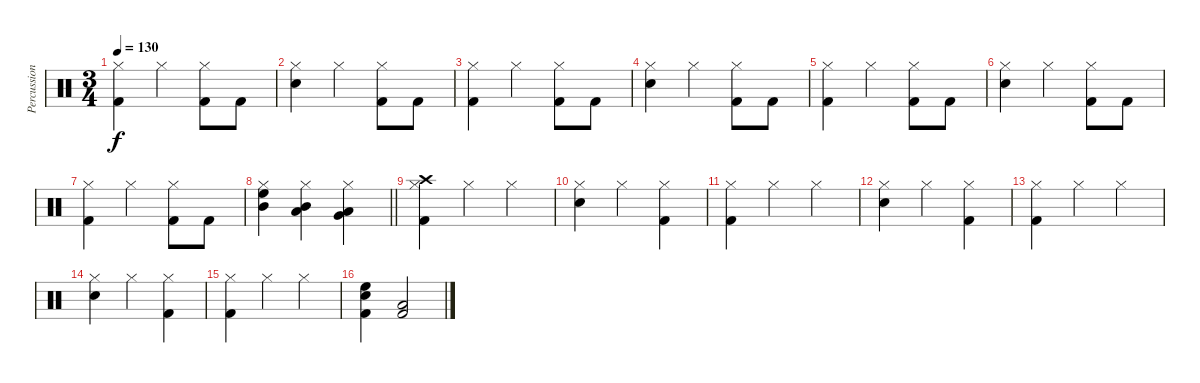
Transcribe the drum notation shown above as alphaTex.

\track ("Percussion" "Percussion") {instrument percussion}
\staff {score}
\articulation defaults
\ts (3 4)
\tempo 130
\clef neutral
\ks c
("Hi-Hat (closed)" "Kick (hit) 2").4{dy f} "Hi-Hat (closed)".4 ("Hi-Hat (closed)" "Kick (hit) 2").8 "Kick (hit) 2".8 |
("Hi-Hat (closed)" "Electric Snare (hit)").4 "Hi-Hat (closed)".4 ("Hi-Hat (closed)" "Kick (hit) 2").8 "Kick (hit) 2".8 |
("Hi-Hat (closed)" "Kick (hit) 2").4 "Hi-Hat (closed)".4 ("Hi-Hat (closed)" "Kick (hit) 2").8 "Kick (hit) 2".8 |
("Hi-Hat (closed)" "Electric Snare (hit)").4 "Hi-Hat (closed)".4 ("Hi-Hat (closed)" "Kick (hit) 2").8 "Kick (hit) 2".8 |
("Hi-Hat (closed)" "Kick (hit) 2").4 "Hi-Hat (closed)".4 ("Hi-Hat (closed)" "Kick (hit) 2").8 "Kick (hit) 2".8 |
("Hi-Hat (closed)" "Electric Snare (hit)").4 "Hi-Hat (closed)".4 ("Hi-Hat (closed)" "Kick (hit) 2").8 "Kick (hit) 2".8 |
("Hi-Hat (closed)" "Kick (hit) 2").4 "Hi-Hat (closed)".4 ("Hi-Hat (closed)" "Kick (hit) 2").8 "Kick (hit) 2".8 |
\barLineRight lightlight
("Hi-Hat (closed)" "High Floor Tom (hit)" "Mid Tom (hit)").4 ("Hi-Hat (closed)" "Mid Tom (hit)" "Low Tom (hit)").4 ("Hi-Hat (closed)" "Low Tom (hit)" "Very Low Tom (hit)").4 |
("Crash high (hit)" "Hi-Hat (closed)" "Kick (hit) 2").4 "Hi-Hat (closed)".4 "Hi-Hat (closed)".4 |
("Hi-Hat (closed)" "Electric Snare (hit)").4 "Hi-Hat (closed)".4 ("Hi-Hat (closed)" "Kick (hit) 2").4 |
("Hi-Hat (closed)" "Kick (hit) 2").4 "Hi-Hat (closed)".4 "Hi-Hat (closed)".4 |
("Hi-Hat (closed)" "Electric Snare (hit)").4 "Hi-Hat (closed)".4 ("Hi-Hat (closed)" "Kick (hit) 2").4 |
("Hi-Hat (closed)" "Kick (hit) 2").4 "Hi-Hat (closed)".4 "Hi-Hat (closed)".4 |
("Hi-Hat (closed)" "Electric Snare (hit)").4 "Hi-Hat (closed)".4 ("Hi-Hat (closed)" "Kick (hit) 2").4 |
("Hi-Hat (closed)" "Kick (hit) 2").4 "Hi-Hat (closed)".4 "Hi-Hat (closed)".4 |
("High Floor Tom (hit)" "Electric Snare (hit)" "Kick (hit) 2").4 ("Low Tom (hit)" "Kick (hit) 2").2
